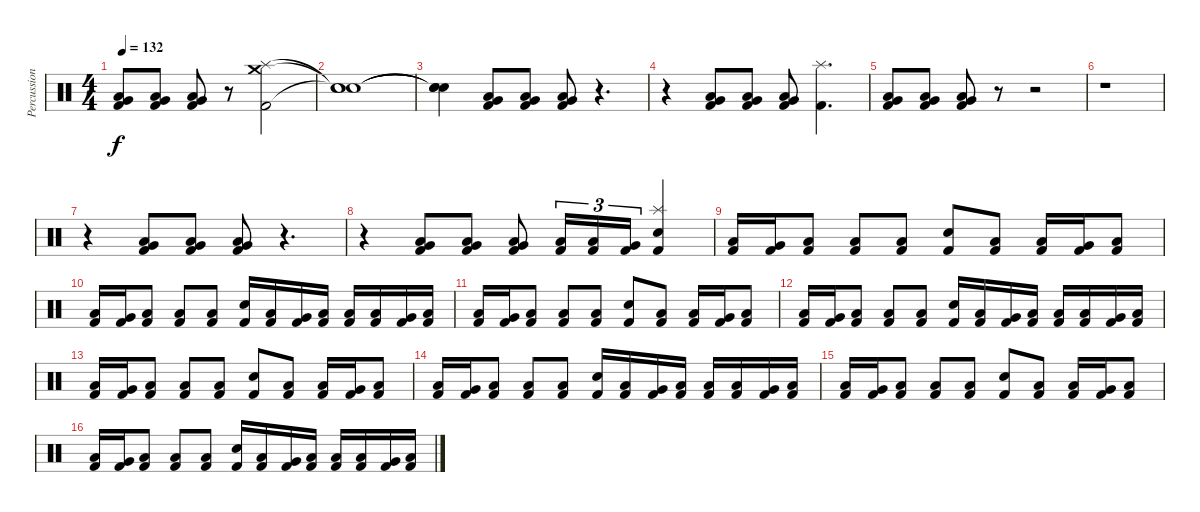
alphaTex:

\track ("Percussion" "Percussion") {instrument percussion}
\staff {score}
\articulation defaults
\ts (4 4)
\tempo 132
\clef neutral
\ks c
("Very Low Tom (hit)" "Low Floor Tom (hit)" "Kick (hit) 2").8{dy f} ("Very Low Tom (hit)" "Low Floor Tom (hit)" "Kick (hit) 2").8 ("Very Low Tom (hit)" "Low Floor Tom (hit)" "Kick (hit) 2").8 r.8 ("Crash medium (hit)" "Splash (hit)" "Kick (hit) 2").2 |
("Snare (hit)"{t} "Snare (hit)"{t} "Snare (hit)"{t}).1 |
("Snare (hit)"{t} "Snare (hit)"{t} "Snare (hit)"{t}).4 ("Very Low Tom (hit)" "Low Floor Tom (hit)" "Kick (hit) 2").8 ("Very Low Tom (hit)" "Low Floor Tom (hit)" "Kick (hit) 2").8 ("Very Low Tom (hit)" "Low Floor Tom (hit)" "Kick (hit) 2").8 r.4{d} |
r.4 ("Very Low Tom (hit)" "Low Floor Tom (hit)" "Kick (hit) 2").8 ("Very Low Tom (hit)" "Low Floor Tom (hit)" "Kick (hit) 2").8 ("Very Low Tom (hit)" "Low Floor Tom (hit)" "Kick (hit) 2").8 ("Splash (hit)" "Kick (hit) 2").4{d} |
("Very Low Tom (hit)" "Low Floor Tom (hit)" "Kick (hit) 2").8 ("Very Low Tom (hit)" "Low Floor Tom (hit)" "Kick (hit) 2").8 ("Very Low Tom (hit)" "Low Floor Tom (hit)" "Kick (hit) 2").8 r.8 r.2 |
r.1 |
r.4 ("Very Low Tom (hit)" "Low Floor Tom (hit)" "Kick (hit) 2").8 ("Very Low Tom (hit)" "Low Floor Tom (hit)" "Kick (hit) 2").8 ("Very Low Tom (hit)" "Low Floor Tom (hit)" "Kick (hit) 2").8 r.4{d} |
r.4 ("Very Low Tom (hit)" "Low Floor Tom (hit)" "Kick (hit) 2").8 ("Very Low Tom (hit)" "Low Floor Tom (hit)" "Kick (hit) 2").8 ("Very Low Tom (hit)" "Low Floor Tom (hit)" "Kick (hit) 2").8 ("Low Floor Tom (hit)" "Kick (hit) 2").16{tu (3 2)} ("Low Tom (hit)" "Kick (hit) 2").16{tu (3 2)} ("Very Low Tom (hit)" "Kick (hit) 2").16{tu (3 2)} ("Splash (hit)" "Electric Snare (hit)" "Kick (hit) 2").4 |
("Low Floor Tom (hit)" "Kick (hit) 2").16 ("Very Low Tom (hit)" "Kick (hit) 2").16 ("Low Floor Tom (hit)" "Kick (hit) 2").8 ("Low Floor Tom (hit)" "Kick (hit) 2").8 ("Low Floor Tom (hit)" "Kick (hit) 2").8 ("Electric Snare (hit)" "Kick (hit) 2").8 ("Low Floor Tom (hit)" "Kick (hit) 2").8 ("Low Floor Tom (hit)" "Kick (hit) 2").16 ("Very Low Tom (hit)" "Kick (hit) 2").16 ("Low Floor Tom (hit)" "Kick (hit) 2").8 |
("Low Floor Tom (hit)" "Kick (hit) 2").16 ("Very Low Tom (hit)" "Kick (hit) 2").16 ("Low Floor Tom (hit)" "Kick (hit) 2").8 ("Low Floor Tom (hit)" "Kick (hit) 2").8 ("Low Floor Tom (hit)" "Kick (hit) 2").8 ("Electric Snare (hit)" "Kick (hit) 2").16 ("Low Floor Tom (hit)" "Kick (hit) 2").16 ("Very Low Tom (hit)" "Kick (hit) 2").16 ("Low Floor Tom (hit)" "Kick (hit) 2").16 ("Low Tom (hit)" "Kick (hit) 2").16 ("Low Floor Tom (hit)" "Kick (hit) 2").16 ("Very Low Tom (hit)" "Kick (hit) 2").16 ("Low Floor Tom (hit)" "Kick (hit) 2").16 |
("Low Floor Tom (hit)" "Kick (hit) 2").16 ("Very Low Tom (hit)" "Kick (hit) 2").16 ("Low Floor Tom (hit)" "Kick (hit) 2").8 ("Low Floor Tom (hit)" "Kick (hit) 2").8 ("Low Floor Tom (hit)" "Kick (hit) 2").8 ("Electric Snare (hit)" "Kick (hit) 2").8 ("Low Floor Tom (hit)" "Kick (hit) 2").8 ("Low Floor Tom (hit)" "Kick (hit) 2").16 ("Very Low Tom (hit)" "Kick (hit) 2").16 ("Low Floor Tom (hit)" "Kick (hit) 2").8 |
("Low Floor Tom (hit)" "Kick (hit) 2").16 ("Very Low Tom (hit)" "Kick (hit) 2").16 ("Low Floor Tom (hit)" "Kick (hit) 2").8 ("Low Floor Tom (hit)" "Kick (hit) 2").8 ("Low Floor Tom (hit)" "Kick (hit) 2").8 ("Electric Snare (hit)" "Kick (hit) 2").16 ("Low Floor Tom (hit)" "Kick (hit) 2").16 ("Very Low Tom (hit)" "Kick (hit) 2").16 ("Low Floor Tom (hit)" "Kick (hit) 2").16 ("Low Tom (hit)" "Kick (hit) 2").16 ("Low Floor Tom (hit)" "Kick (hit) 2").16 ("Very Low Tom (hit)" "Kick (hit) 2").16 ("Low Floor Tom (hit)" "Kick (hit) 2").16 |
("Low Floor Tom (hit)" "Kick (hit) 2").16 ("Very Low Tom (hit)" "Kick (hit) 2").16 ("Low Floor Tom (hit)" "Kick (hit) 2").8 ("Low Floor Tom (hit)" "Kick (hit) 2").8 ("Low Floor Tom (hit)" "Kick (hit) 2").8 ("Electric Snare (hit)" "Kick (hit) 2").8 ("Low Floor Tom (hit)" "Kick (hit) 2").8 ("Low Floor Tom (hit)" "Kick (hit) 2").16 ("Very Low Tom (hit)" "Kick (hit) 2").16 ("Low Floor Tom (hit)" "Kick (hit) 2").8 |
("Low Floor Tom (hit)" "Kick (hit) 2").16 ("Very Low Tom (hit)" "Kick (hit) 2").16 ("Low Floor Tom (hit)" "Kick (hit) 2").8 ("Low Floor Tom (hit)" "Kick (hit) 2").8 ("Low Floor Tom (hit)" "Kick (hit) 2").8 ("Electric Snare (hit)" "Kick (hit) 2").16 ("Low Floor Tom (hit)" "Kick (hit) 2").16 ("Very Low Tom (hit)" "Kick (hit) 2").16 ("Low Floor Tom (hit)" "Kick (hit) 2").16 ("Low Tom (hit)" "Kick (hit) 2").16 ("Low Floor Tom (hit)" "Kick (hit) 2").16 ("Very Low Tom (hit)" "Kick (hit) 2").16 ("Low Floor Tom (hit)" "Kick (hit) 2").16 |
("Low Floor Tom (hit)" "Kick (hit) 2").16 ("Very Low Tom (hit)" "Kick (hit) 2").16 ("Low Floor Tom (hit)" "Kick (hit) 2").8 ("Low Floor Tom (hit)" "Kick (hit) 2").8 ("Low Floor Tom (hit)" "Kick (hit) 2").8 ("Electric Snare (hit)" "Kick (hit) 2").8 ("Low Floor Tom (hit)" "Kick (hit) 2").8 ("Low Floor Tom (hit)" "Kick (hit) 2").16 ("Very Low Tom (hit)" "Kick (hit) 2").16 ("Low Floor Tom (hit)" "Kick (hit) 2").8 |
("Low Floor Tom (hit)" "Kick (hit) 2").16 ("Very Low Tom (hit)" "Kick (hit) 2").16 ("Low Floor Tom (hit)" "Kick (hit) 2").8 ("Low Floor Tom (hit)" "Kick (hit) 2").8 ("Low Floor Tom (hit)" "Kick (hit) 2").8 ("Electric Snare (hit)" "Kick (hit) 2").16 ("Low Floor Tom (hit)" "Kick (hit) 2").16 ("Very Low Tom (hit)" "Kick (hit) 2").16 ("Low Floor Tom (hit)" "Kick (hit) 2").16 ("Low Tom (hit)" "Kick (hit) 2").16 ("Low Floor Tom (hit)" "Kick (hit) 2").16 ("Very Low Tom (hit)" "Kick (hit) 2").16 ("Low Floor Tom (hit)" "Kick (hit) 2").16
